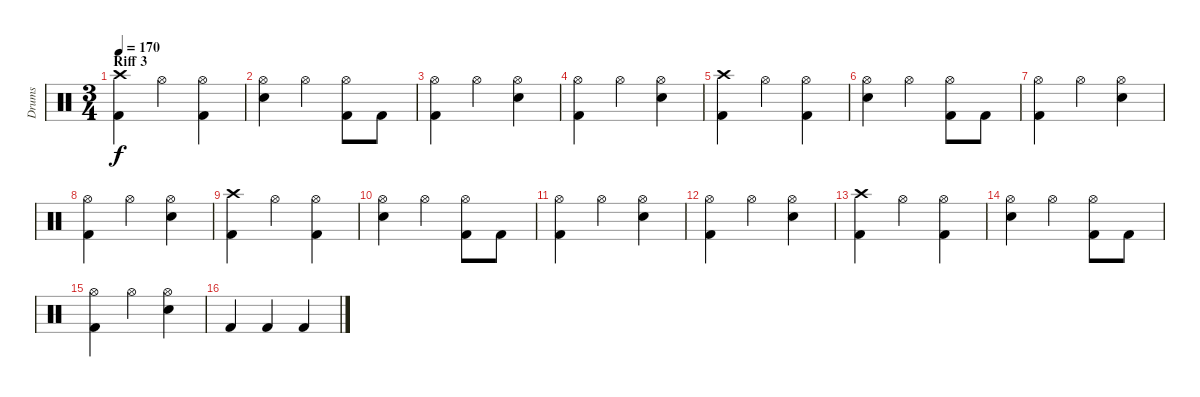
\track ("Drums" "Drums") {instrument percussion}
\staff {score}
\articulation defaults
\ts (3 4)
\section ("" "Riff 3")
\tempo 170
\clef neutral
\ks c
("Crash high (hit)" "Kick (hit) 2").4{dy f} "Hi-Hat (open)".4 ("Hi-Hat (open)" "Kick (hit) 2").4 |
("Hi-Hat (open)" "Electric Snare (hit)").4 "Hi-Hat (open)".4 ("Hi-Hat (open)" "Kick (hit) 2").8 "Kick (hit) 2".8 |
("Hi-Hat (open)" "Kick (hit) 2").4 "Hi-Hat (open)".4 ("Hi-Hat (open)" "Electric Snare (hit)").4 |
("Hi-Hat (open)" "Kick (hit) 2").4 "Hi-Hat (open)".4 ("Hi-Hat (open)" "Electric Snare (hit)").4 |
("Crash high (hit)" "Kick (hit) 2").4 "Hi-Hat (open)".4 ("Hi-Hat (open)" "Kick (hit) 2").4 |
("Hi-Hat (open)" "Electric Snare (hit)").4 "Hi-Hat (open)".4 ("Hi-Hat (open)" "Kick (hit) 2").8 "Kick (hit) 2".8 |
("Hi-Hat (open)" "Kick (hit) 2").4 "Hi-Hat (open)".4 ("Hi-Hat (open)" "Electric Snare (hit)").4 |
("Hi-Hat (open)" "Kick (hit) 2").4 "Hi-Hat (open)".4 ("Hi-Hat (open)" "Electric Snare (hit)").4 |
("Crash high (hit)" "Kick (hit) 2").4 "Hi-Hat (open)".4 ("Hi-Hat (open)" "Kick (hit) 2").4 |
("Hi-Hat (open)" "Electric Snare (hit)").4 "Hi-Hat (open)".4 ("Hi-Hat (open)" "Kick (hit) 2").8 "Kick (hit) 2".8 |
("Hi-Hat (open)" "Kick (hit) 2").4 "Hi-Hat (open)".4 ("Hi-Hat (open)" "Electric Snare (hit)").4 |
("Hi-Hat (open)" "Kick (hit) 2").4 "Hi-Hat (open)".4 ("Hi-Hat (open)" "Electric Snare (hit)").4 |
("Crash high (hit)" "Kick (hit) 2").4 "Hi-Hat (open)".4 ("Hi-Hat (open)" "Kick (hit) 2").4 |
("Hi-Hat (open)" "Electric Snare (hit)").4 "Hi-Hat (open)".4 ("Hi-Hat (open)" "Kick (hit) 2").8 "Kick (hit) 2".8 |
("Hi-Hat (open)" "Kick (hit) 2").4 "Hi-Hat (open)".4 ("Hi-Hat (open)" "Electric Snare (hit)").4 |
"Kick (hit) 2".4 "Kick (hit) 2".4 "Kick (hit) 2".4
